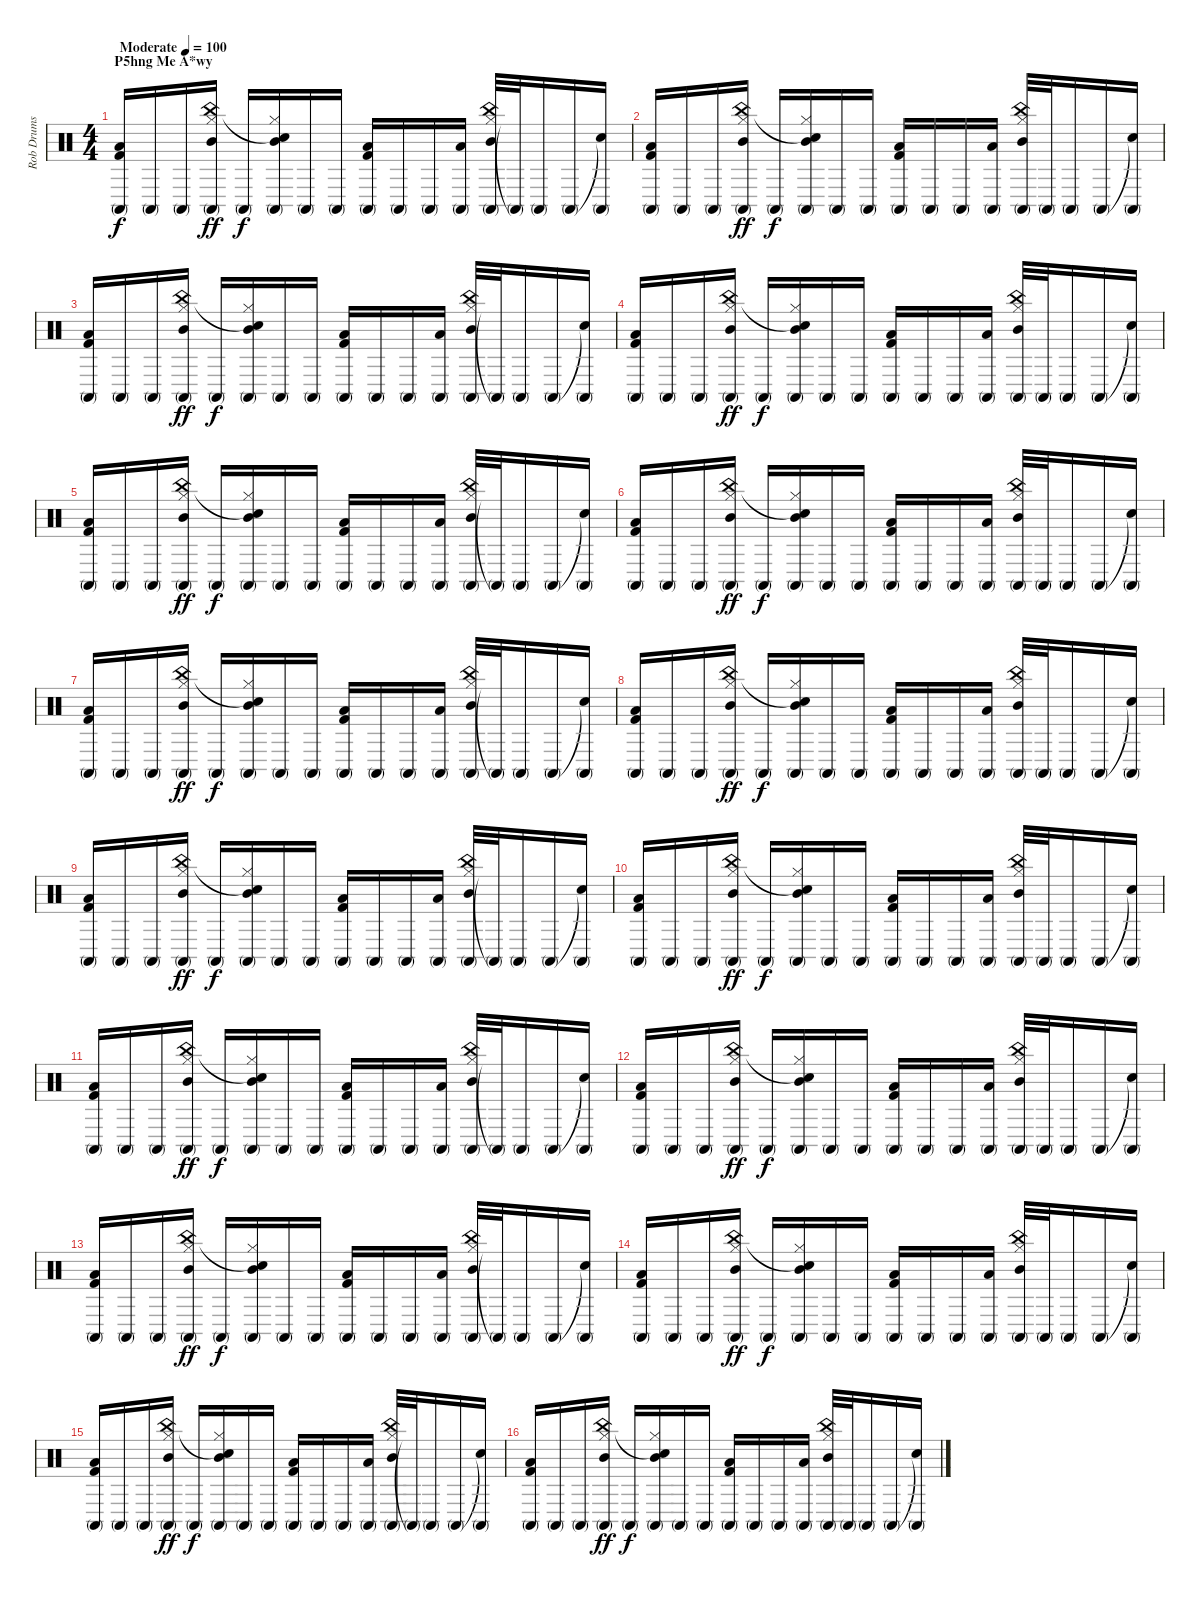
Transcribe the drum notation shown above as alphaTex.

\track ("Rob Drums" "Rob Drums") {instrument percussion}
\staff {score}
\articulation defaults
\ts (4 4)
\section ("" "P5hng Me A*wy")
\tempo (100 "Moderate")
\clef neutral
\ks c
("Kick (hit) 2" "Low Tom (hit)" "Conga high (mute)").16{dy f} "Conga high (mute)".16 "Conga high (mute)".16 ("Hi-Hat (closed)" "China (hit)" "Mid Tom (hit)" "Conga high (mute)").16{dy ff} "Conga high (mute)".16{dy f} ("Hi-Hat (closed)" "Snare (hit)"{t} "Mid Tom (hit)" "Conga high (mute)").16 "Conga high (mute)".16 "Conga high (mute)".16 ("Kick (hit) 2" "Low Tom (hit)" "Conga high (mute)").16 "Conga high (mute)".16 "Conga high (mute)".16 ("Low Tom (hit)" "Conga high (mute)").16 ("Hi-Hat (closed)" "China (hit)" "Mid Tom (hit)" "Conga high (mute)").32 "Conga high (mute)"{t}.32 "Conga high (mute)".16 "Conga high (mute)".16 ("Snare (hit)"{t} "Conga high (mute)").16 |
("Kick (hit) 2" "Low Tom (hit)" "Conga high (mute)").16 "Conga high (mute)".16 "Conga high (mute)".16 ("Hi-Hat (closed)" "China (hit)" "Mid Tom (hit)" "Conga high (mute)").16{dy ff} "Conga high (mute)".16{dy f} ("Hi-Hat (closed)" "Snare (hit)"{t} "Mid Tom (hit)" "Conga high (mute)").16 "Conga high (mute)".16 "Conga high (mute)".16 ("Kick (hit) 2" "Low Tom (hit)" "Conga high (mute)").16 "Conga high (mute)".16 "Conga high (mute)".16 ("Low Tom (hit)" "Conga high (mute)").16 ("Hi-Hat (closed)" "China (hit)" "Mid Tom (hit)" "Conga high (mute)").32 "Conga high (mute)".32 "Conga high (mute)".16 "Conga high (mute)".16 ("Snare (hit)"{t} "Conga high (mute)").16 |
("Kick (hit) 2" "Low Tom (hit)" "Conga high (mute)").16 "Conga high (mute)".16 "Conga high (mute)".16 ("Hi-Hat (closed)" "China (hit)" "Mid Tom (hit)" "Conga high (mute)").16{dy ff} "Conga high (mute)".16{dy f} ("Hi-Hat (closed)" "Snare (hit)"{t} "Mid Tom (hit)" "Conga high (mute)").16 "Conga high (mute)".16 "Conga high (mute)".16 ("Kick (hit) 2" "Low Tom (hit)" "Conga high (mute)").16 "Conga high (mute)".16 "Conga high (mute)".16 ("Low Tom (hit)" "Conga high (mute)").16 ("Hi-Hat (closed)" "China (hit)" "Mid Tom (hit)" "Conga high (mute)").32 "Conga high (mute)"{t}.32 "Conga high (mute)".16 "Conga high (mute)".16 ("Snare (hit)"{t} "Conga high (mute)").16 |
("Kick (hit) 2" "Low Tom (hit)" "Conga high (mute)").16 "Conga high (mute)".16 "Conga high (mute)".16 ("Hi-Hat (closed)" "China (hit)" "Mid Tom (hit)" "Conga high (mute)").16{dy ff} "Conga high (mute)".16{dy f} ("Hi-Hat (closed)" "Snare (hit)"{t} "Mid Tom (hit)" "Conga high (mute)").16 "Conga high (mute)".16 "Conga high (mute)".16 ("Kick (hit) 2" "Low Tom (hit)" "Conga high (mute)").16 "Conga high (mute)".16 "Conga high (mute)".16 ("Low Tom (hit)" "Conga high (mute)").16 ("Hi-Hat (closed)" "China (hit)" "Mid Tom (hit)" "Conga high (mute)").32 "Conga high (mute)".32 "Conga high (mute)".16 "Conga high (mute)".16 ("Snare (hit)"{t} "Conga high (mute)").16 |
("Kick (hit) 2" "Low Tom (hit)" "Conga high (mute)").16 "Conga high (mute)".16 "Conga high (mute)".16 ("Hi-Hat (closed)" "China (hit)" "Mid Tom (hit)" "Conga high (mute)").16{dy ff} "Conga high (mute)".16{dy f} ("Hi-Hat (closed)" "Snare (hit)"{t} "Mid Tom (hit)" "Conga high (mute)").16 "Conga high (mute)".16 "Conga high (mute)".16 ("Kick (hit) 2" "Low Tom (hit)" "Conga high (mute)").16 "Conga high (mute)".16 "Conga high (mute)".16 ("Low Tom (hit)" "Conga high (mute)").16 ("Hi-Hat (closed)" "China (hit)" "Mid Tom (hit)" "Conga high (mute)").32 "Conga high (mute)"{t}.32 "Conga high (mute)".16 "Conga high (mute)".16 ("Snare (hit)"{t} "Conga high (mute)").16 |
("Kick (hit) 2" "Low Tom (hit)" "Conga high (mute)").16 "Conga high (mute)".16 "Conga high (mute)".16 ("Hi-Hat (closed)" "China (hit)" "Mid Tom (hit)" "Conga high (mute)").16{dy ff} "Conga high (mute)".16{dy f} ("Hi-Hat (closed)" "Snare (hit)"{t} "Mid Tom (hit)" "Conga high (mute)").16 "Conga high (mute)".16 "Conga high (mute)".16 ("Kick (hit) 2" "Low Tom (hit)" "Conga high (mute)").16 "Conga high (mute)".16 "Conga high (mute)".16 ("Low Tom (hit)" "Conga high (mute)").16 ("Hi-Hat (closed)" "China (hit)" "Mid Tom (hit)" "Conga high (mute)").32 "Conga high (mute)".32 "Conga high (mute)".16 "Conga high (mute)".16 ("Snare (hit)"{t} "Conga high (mute)").16 |
("Kick (hit) 2" "Low Tom (hit)" "Conga high (mute)").16 "Conga high (mute)".16 "Conga high (mute)".16 ("Hi-Hat (closed)" "China (hit)" "Mid Tom (hit)" "Conga high (mute)").16{dy ff} "Conga high (mute)".16{dy f} ("Hi-Hat (closed)" "Snare (hit)"{t} "Mid Tom (hit)" "Conga high (mute)").16 "Conga high (mute)".16 "Conga high (mute)".16 ("Kick (hit) 2" "Low Tom (hit)" "Conga high (mute)").16 "Conga high (mute)".16 "Conga high (mute)".16 ("Low Tom (hit)" "Conga high (mute)").16 ("Hi-Hat (closed)" "China (hit)" "Mid Tom (hit)" "Conga high (mute)").32 "Conga high (mute)"{t}.32 "Conga high (mute)".16 "Conga high (mute)".16 ("Snare (hit)"{t} "Conga high (mute)").16 |
("Kick (hit) 2" "Low Tom (hit)" "Conga high (mute)").16 "Conga high (mute)".16 "Conga high (mute)".16 ("Hi-Hat (closed)" "China (hit)" "Mid Tom (hit)" "Conga high (mute)").16{dy ff} "Conga high (mute)".16{dy f} ("Hi-Hat (closed)" "Snare (hit)"{t} "Mid Tom (hit)" "Conga high (mute)").16 "Conga high (mute)".16 "Conga high (mute)".16 ("Kick (hit) 2" "Low Tom (hit)" "Conga high (mute)").16 "Conga high (mute)".16 "Conga high (mute)".16 ("Low Tom (hit)" "Conga high (mute)").16 ("Hi-Hat (closed)" "China (hit)" "Mid Tom (hit)" "Conga high (mute)").32 "Conga high (mute)".32 "Conga high (mute)".16 "Conga high (mute)".16 ("Snare (hit)"{t} "Conga high (mute)").16 |
("Kick (hit) 2" "Low Tom (hit)" "Conga high (mute)").16 "Conga high (mute)".16 "Conga high (mute)".16 ("Hi-Hat (closed)" "China (hit)" "Mid Tom (hit)" "Conga high (mute)").16{dy ff} "Conga high (mute)".16{dy f} ("Hi-Hat (closed)" "Snare (hit)"{t} "Mid Tom (hit)" "Conga high (mute)").16 "Conga high (mute)".16 "Conga high (mute)".16 ("Kick (hit) 2" "Low Tom (hit)" "Conga high (mute)").16 "Conga high (mute)".16 "Conga high (mute)".16 ("Low Tom (hit)" "Conga high (mute)").16 ("Hi-Hat (closed)" "China (hit)" "Mid Tom (hit)" "Conga high (mute)").32 "Conga high (mute)"{t}.32 "Conga high (mute)".16 "Conga high (mute)".16 ("Snare (hit)"{t} "Conga high (mute)").16 |
("Kick (hit) 2" "Low Tom (hit)" "Conga high (mute)").16 "Conga high (mute)".16 "Conga high (mute)".16 ("Hi-Hat (closed)" "China (hit)" "Mid Tom (hit)" "Conga high (mute)").16{dy ff} "Conga high (mute)".16{dy f} ("Hi-Hat (closed)" "Snare (hit)"{t} "Mid Tom (hit)" "Conga high (mute)").16 "Conga high (mute)".16 "Conga high (mute)".16 ("Kick (hit) 2" "Low Tom (hit)" "Conga high (mute)").16 "Conga high (mute)".16 "Conga high (mute)".16 ("Low Tom (hit)" "Conga high (mute)").16 ("Hi-Hat (closed)" "China (hit)" "Mid Tom (hit)" "Conga high (mute)").32 "Conga high (mute)".32 "Conga high (mute)".16 "Conga high (mute)".16 ("Snare (hit)"{t} "Conga high (mute)").16 |
("Kick (hit) 2" "Low Tom (hit)" "Conga high (mute)").16 "Conga high (mute)".16 "Conga high (mute)".16 ("Hi-Hat (closed)" "China (hit)" "Mid Tom (hit)" "Conga high (mute)").16{dy ff} "Conga high (mute)".16{dy f} ("Hi-Hat (closed)" "Snare (hit)"{t} "Mid Tom (hit)" "Conga high (mute)").16 "Conga high (mute)".16 "Conga high (mute)".16 ("Kick (hit) 2" "Low Tom (hit)" "Conga high (mute)").16 "Conga high (mute)".16 "Conga high (mute)".16 ("Low Tom (hit)" "Conga high (mute)").16 ("Hi-Hat (closed)" "China (hit)" "Mid Tom (hit)" "Conga high (mute)").32 "Conga high (mute)"{t}.32 "Conga high (mute)".16 "Conga high (mute)".16 ("Snare (hit)"{t} "Conga high (mute)").16 |
("Kick (hit) 2" "Low Tom (hit)" "Conga high (mute)").16 "Conga high (mute)".16 "Conga high (mute)".16 ("Hi-Hat (closed)" "China (hit)" "Mid Tom (hit)" "Conga high (mute)").16{dy ff} "Conga high (mute)".16{dy f} ("Hi-Hat (closed)" "Snare (hit)"{t} "Mid Tom (hit)" "Conga high (mute)").16 "Conga high (mute)".16 "Conga high (mute)".16 ("Kick (hit) 2" "Low Tom (hit)" "Conga high (mute)").16 "Conga high (mute)".16 "Conga high (mute)".16 ("Low Tom (hit)" "Conga high (mute)").16 ("Hi-Hat (closed)" "China (hit)" "Mid Tom (hit)" "Conga high (mute)").32 "Conga high (mute)".32 "Conga high (mute)".16 "Conga high (mute)".16 ("Snare (hit)"{t} "Conga high (mute)").16 |
("Kick (hit) 2" "Low Tom (hit)" "Conga high (mute)").16 "Conga high (mute)".16 "Conga high (mute)".16 ("Hi-Hat (closed)" "China (hit)" "Mid Tom (hit)" "Conga high (mute)").16{dy ff} "Conga high (mute)".16{dy f} ("Hi-Hat (closed)" "Snare (hit)"{t} "Mid Tom (hit)" "Conga high (mute)").16 "Conga high (mute)".16 "Conga high (mute)".16 ("Kick (hit) 2" "Low Tom (hit)" "Conga high (mute)").16 "Conga high (mute)".16 "Conga high (mute)".16 ("Low Tom (hit)" "Conga high (mute)").16 ("Hi-Hat (closed)" "China (hit)" "Mid Tom (hit)" "Conga high (mute)").32 "Conga high (mute)"{t}.32 "Conga high (mute)".16 "Conga high (mute)".16 ("Snare (hit)"{t} "Conga high (mute)").16 |
("Kick (hit) 2" "Low Tom (hit)" "Conga high (mute)").16 "Conga high (mute)".16 "Conga high (mute)".16 ("Hi-Hat (closed)" "China (hit)" "Mid Tom (hit)" "Conga high (mute)").16{dy ff} "Conga high (mute)".16{dy f} ("Hi-Hat (closed)" "Snare (hit)"{t} "Mid Tom (hit)" "Conga high (mute)").16 "Conga high (mute)".16 "Conga high (mute)".16 ("Kick (hit) 2" "Low Tom (hit)" "Conga high (mute)").16 "Conga high (mute)".16 "Conga high (mute)".16 ("Low Tom (hit)" "Conga high (mute)").16 ("Hi-Hat (closed)" "China (hit)" "Mid Tom (hit)" "Conga high (mute)").32 "Conga high (mute)".32 "Conga high (mute)".16 "Conga high (mute)".16 ("Snare (hit)"{t} "Conga high (mute)").16 |
("Kick (hit) 2" "Low Tom (hit)" "Conga high (mute)").16 "Conga high (mute)".16 "Conga high (mute)".16 ("Hi-Hat (closed)" "China (hit)" "Mid Tom (hit)" "Conga high (mute)").16{dy ff} "Conga high (mute)".16{dy f} ("Hi-Hat (closed)" "Snare (hit)"{t} "Mid Tom (hit)" "Conga high (mute)").16 "Conga high (mute)".16 "Conga high (mute)".16 ("Kick (hit) 2" "Low Tom (hit)" "Conga high (mute)").16 "Conga high (mute)".16 "Conga high (mute)".16 ("Low Tom (hit)" "Conga high (mute)").16 ("Hi-Hat (closed)" "China (hit)" "Mid Tom (hit)" "Conga high (mute)").32 "Conga high (mute)"{t}.32 "Conga high (mute)".16 "Conga high (mute)".16 ("Snare (hit)"{t} "Conga high (mute)").16 |
("Kick (hit) 2" "Low Tom (hit)" "Conga high (mute)").16 "Conga high (mute)".16 "Conga high (mute)".16 ("Hi-Hat (closed)" "China (hit)" "Mid Tom (hit)" "Conga high (mute)").16{dy ff} "Conga high (mute)".16{dy f} ("Hi-Hat (closed)" "Snare (hit)"{t} "Mid Tom (hit)" "Conga high (mute)").16 "Conga high (mute)".16 "Conga high (mute)".16 ("Kick (hit) 2" "Low Tom (hit)" "Conga high (mute)").16 "Conga high (mute)".16 "Conga high (mute)".16 ("Low Tom (hit)" "Conga high (mute)").16 ("Hi-Hat (closed)" "China (hit)" "Mid Tom (hit)" "Conga high (mute)").32 "Conga high (mute)".32 "Conga high (mute)".16 "Conga high (mute)".16 ("Snare (hit)"{t} "Conga high (mute)").16
